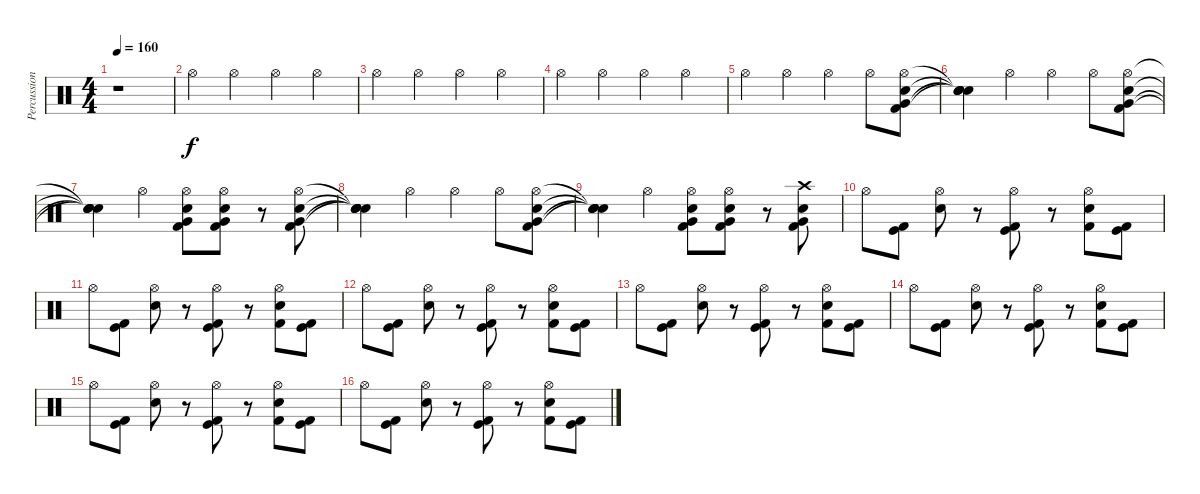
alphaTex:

\track ("Percussions" "Percussion") {instrument percussion}
\staff {score}
\articulation defaults
\ts (4 4)
\tempo 160
\clef neutral
\ks c
r.1{dy f} |
"Hi-Hat (open)".4 "Hi-Hat (open)".4 "Hi-Hat (open)".4 "Hi-Hat (open)".4 |
"Hi-Hat (open)".4 "Hi-Hat (open)".4 "Hi-Hat (open)".4 "Hi-Hat (open)".4 |
"Hi-Hat (open)".4 "Hi-Hat (open)".4 "Hi-Hat (open)".4 "Hi-Hat (open)".4 |
"Hi-Hat (open)".4 "Hi-Hat (open)".4 "Hi-Hat (open)".4 "Hi-Hat (open)".8 ("Hi-Hat (open)" "Snare (hit) 2" "Very Low Tom (hit)" "Kick (hit) 2").8 |
("Snare (hit)"{t} "Snare (hit)"{t} "Snare (hit)"{t} "Snare (hit)"{t}).4 "Hi-Hat (open)".4 "Hi-Hat (open)".4 "Hi-Hat (open)".8 ("Hi-Hat (open)" "Snare (hit) 2" "Very Low Tom (hit)" "Kick (hit) 2").8 |
("Snare (hit)"{t} "Snare (hit)"{t} "Snare (hit)"{t} "Snare (hit)"{t}).4 "Hi-Hat (open)".4 ("Hi-Hat (open)" "Snare (hit) 2" "Very Low Tom (hit)" "Kick (hit) 2").8 ("Hi-Hat (open)" "Snare (hit) 2" "Very Low Tom (hit)" "Kick (hit) 2").8 r.8 ("Hi-Hat (open)" "Snare (hit) 2" "Very Low Tom (hit)" "Kick (hit) 2").8 |
("Snare (hit)"{t} "Snare (hit)"{t} "Snare (hit)"{t} "Snare (hit)"{t}).4 "Hi-Hat (open)".4 "Hi-Hat (open)".4 "Hi-Hat (open)".8 ("Hi-Hat (open)" "Snare (hit) 2" "Very Low Tom (hit)" "Kick (hit) 2").8 |
("Snare (hit)"{t} "Snare (hit)"{t} "Snare (hit)"{t} "Snare (hit)"{t}).4 "Hi-Hat (open)".4 ("Hi-Hat (open)" "Snare (hit) 2" "Very Low Tom (hit)" "Kick (hit) 2").8 ("Hi-Hat (open)" "Snare (hit) 2" "Very Low Tom (hit)" "Kick (hit) 2").8 r.8 ("Crash high (hit)" "Snare (hit) 2" "Very Low Tom (hit)" "Kick (hit) 2").8 |
"Hi-Hat (open)".8 ("Kick (hit) 2" "Kick (hit)").8 ("Snare (hit) 2" "Hi-Hat (open)").8 r.8 ("Kick (hit) 2" "Kick (hit)" "Hi-Hat (open)").8 r.8 ("Kick (hit) 2" "Snare (hit) 2" "Hi-Hat (open)").8 ("Kick (hit) 2" "Kick (hit)").8 |
"Hi-Hat (open)".8 ("Kick (hit) 2" "Kick (hit)").8 ("Snare (hit) 2" "Hi-Hat (open)").8 r.8 ("Kick (hit) 2" "Kick (hit)" "Hi-Hat (open)").8 r.8 ("Kick (hit) 2" "Snare (hit) 2" "Hi-Hat (open)").8 ("Kick (hit) 2" "Kick (hit)").8 |
"Hi-Hat (open)".8 ("Kick (hit) 2" "Kick (hit)").8 ("Snare (hit) 2" "Hi-Hat (open)").8 r.8 ("Kick (hit) 2" "Kick (hit)" "Hi-Hat (open)").8 r.8 ("Kick (hit) 2" "Snare (hit) 2" "Hi-Hat (open)").8 ("Kick (hit) 2" "Kick (hit)").8 |
"Hi-Hat (open)".8 ("Kick (hit) 2" "Kick (hit)").8 ("Snare (hit) 2" "Hi-Hat (open)").8 r.8 ("Kick (hit) 2" "Kick (hit)" "Hi-Hat (open)").8 r.8 ("Kick (hit) 2" "Snare (hit) 2" "Hi-Hat (open)").8 ("Kick (hit) 2" "Kick (hit)").8 |
"Hi-Hat (open)".8 ("Kick (hit) 2" "Kick (hit)").8 ("Snare (hit) 2" "Hi-Hat (open)").8 r.8 ("Kick (hit) 2" "Kick (hit)" "Hi-Hat (open)").8 r.8 ("Kick (hit) 2" "Snare (hit) 2" "Hi-Hat (open)").8 ("Kick (hit) 2" "Kick (hit)").8 |
"Hi-Hat (open)".8 ("Kick (hit) 2" "Kick (hit)").8 ("Snare (hit) 2" "Hi-Hat (open)").8 r.8 ("Kick (hit) 2" "Kick (hit)" "Hi-Hat (open)").8 r.8 ("Kick (hit) 2" "Snare (hit) 2" "Hi-Hat (open)").8 ("Kick (hit) 2" "Kick (hit)").8 |
"Hi-Hat (open)".8 ("Kick (hit) 2" "Kick (hit)").8 ("Snare (hit) 2" "Hi-Hat (open)").8 r.8 ("Kick (hit) 2" "Kick (hit)" "Hi-Hat (open)").8 r.8 ("Kick (hit) 2" "Snare (hit) 2" "Hi-Hat (open)").8 ("Kick (hit) 2" "Kick (hit)").8
